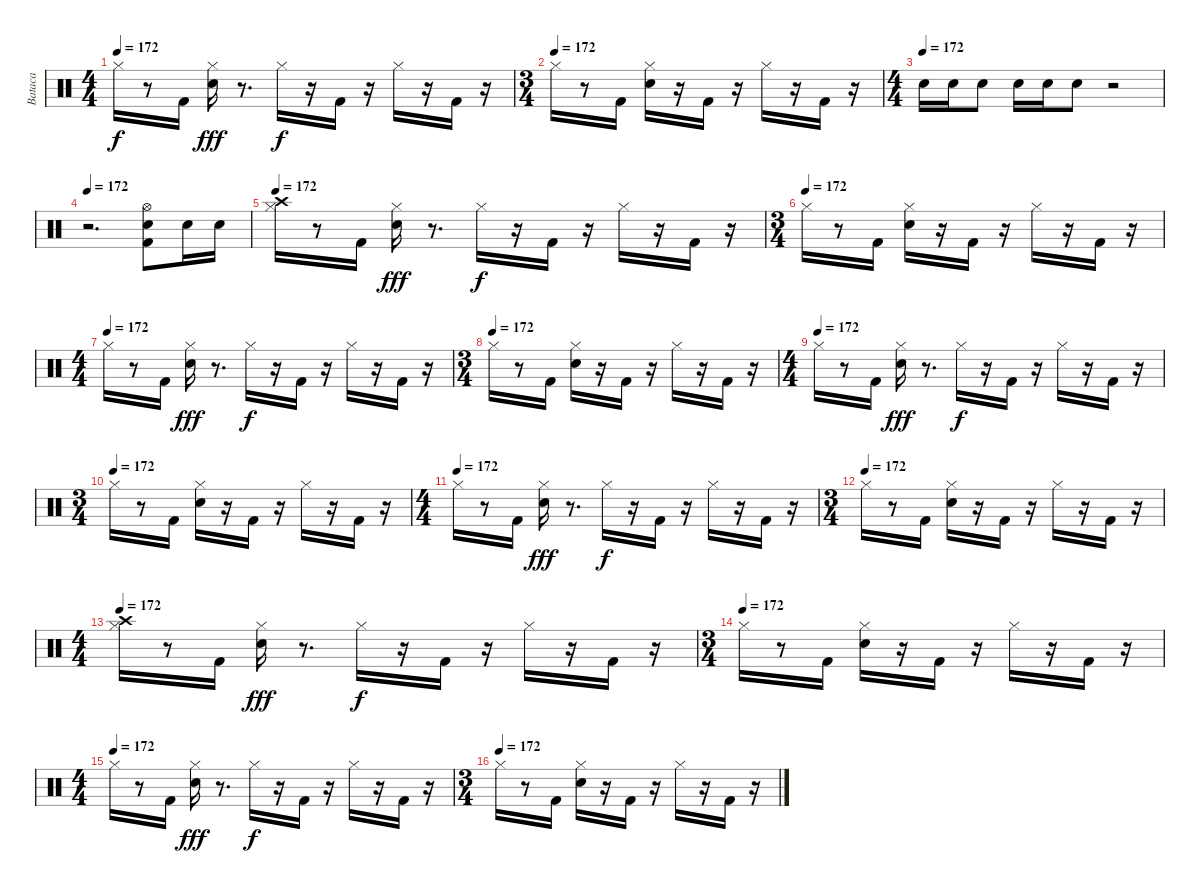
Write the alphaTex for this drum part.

\track ("Bataca" "Bataca") {instrument percussion}
\staff {score}
\articulation defaults
\ts (4 4)
\tempo 172
\clef neutral
\ks c "Hi-Hat (closed)".16{dy f}
r.8 "Kick (hit) 2".16 ("Hi-Hat (closed)" "Snare (hit) 2").16{dy fff} r.8{d} "Hi-Hat (closed)".16{dy f} r.16 "Kick (hit) 2".16 r.16 "Hi-Hat (closed)".16 r.16 "Kick (hit) 2".16 r.16 |
\ts (3 4)
\tempo (172)
"Hi-Hat (closed)".16 r.8 "Kick (hit) 2".16 ("Hi-Hat (closed)" "Snare (hit) 2").16 r.16 "Kick (hit) 2".16 r.16 "Hi-Hat (closed)".16 r.16 "Kick (hit) 2".16 r.16 |
\ts (4 4)
\tempo (172)
"Snare (hit) 2".16 "Snare (hit) 2".16 "Snare (hit) 2".8 "Snare (hit) 2".16 "Snare (hit) 2".16 "Snare (hit) 2".8 r.2 |
\tempo 172
r.2{d} ("Hi-Hat (open)" "Snare (hit) 2" "Kick (hit) 2").8 "Snare (hit) 2".16 "Snare (hit) 2".16 |
\tempo 172
("Crash high (hit)" "Hi-Hat (closed)").16 r.8 "Kick (hit) 2".16 ("Hi-Hat (closed)" "Snare (hit) 2").16{dy fff} r.8{d} "Hi-Hat (closed)".16{dy f} r.16 "Kick (hit) 2".16 r.16 "Hi-Hat (closed)".16 r.16 "Kick (hit) 2".16 r.16 |
\ts (3 4)
\tempo (172)
"Hi-Hat (closed)".16 r.8 "Kick (hit) 2".16 ("Hi-Hat (closed)" "Snare (hit) 2").16 r.16 "Kick (hit) 2".16 r.16 "Hi-Hat (closed)".16 r.16 "Kick (hit) 2".16 r.16 |
\ts (4 4)
\tempo (172)
"Hi-Hat (closed)".16 r.8 "Kick (hit) 2".16 ("Hi-Hat (closed)" "Snare (hit) 2").16{dy fff} r.8{d} "Hi-Hat (closed)".16{dy f} r.16 "Kick (hit) 2".16 r.16 "Hi-Hat (closed)".16 r.16 "Kick (hit) 2".16 r.16 |
\ts (3 4)
\tempo (172)
"Hi-Hat (closed)".16 r.8 "Kick (hit) 2".16 ("Hi-Hat (closed)" "Snare (hit) 2").16 r.16 "Kick (hit) 2".16 r.16 "Hi-Hat (closed)".16 r.16 "Kick (hit) 2".16 r.16 |
\ts (4 4)
\tempo (172)
"Hi-Hat (closed)".16 r.8 "Kick (hit) 2".16 ("Hi-Hat (closed)" "Snare (hit) 2").16{dy fff} r.8{d} "Hi-Hat (closed)".16{dy f} r.16 "Kick (hit) 2".16 r.16 "Hi-Hat (closed)".16 r.16 "Kick (hit) 2".16 r.16 |
\ts (3 4)
\tempo (172)
"Hi-Hat (closed)".16 r.8 "Kick (hit) 2".16 ("Hi-Hat (closed)" "Snare (hit) 2").16 r.16 "Kick (hit) 2".16 r.16 "Hi-Hat (closed)".16 r.16 "Kick (hit) 2".16 r.16 |
\ts (4 4)
\tempo (172)
"Hi-Hat (closed)".16 r.8 "Kick (hit) 2".16 ("Hi-Hat (closed)" "Snare (hit) 2").16{dy fff} r.8{d} "Hi-Hat (closed)".16{dy f} r.16 "Kick (hit) 2".16 r.16 "Hi-Hat (closed)".16 r.16 "Kick (hit) 2".16 r.16 |
\ts (3 4)
\tempo (172)
"Hi-Hat (closed)".16 r.8 "Kick (hit) 2".16 ("Hi-Hat (closed)" "Snare (hit) 2").16 r.16 "Kick (hit) 2".16 r.16 "Hi-Hat (closed)".16 r.16 "Kick (hit) 2".16 r.16 |
\ts (4 4)
\tempo 172
("Crash high (hit)" "Hi-Hat (closed)").16 r.8 "Kick (hit) 2".16 ("Hi-Hat (closed)" "Snare (hit) 2").16{dy fff} r.8{d} "Hi-Hat (closed)".16{dy f} r.16 "Kick (hit) 2".16 r.16 "Hi-Hat (closed)".16 r.16 "Kick (hit) 2".16 r.16 |
\ts (3 4)
\tempo (172)
"Hi-Hat (closed)".16 r.8 "Kick (hit) 2".16 ("Hi-Hat (closed)" "Snare (hit) 2").16 r.16 "Kick (hit) 2".16 r.16 "Hi-Hat (closed)".16 r.16 "Kick (hit) 2".16 r.16 |
\ts (4 4)
\tempo (172)
"Hi-Hat (closed)".16 r.8 "Kick (hit) 2".16 ("Hi-Hat (closed)" "Snare (hit) 2").16{dy fff} r.8{d} "Hi-Hat (closed)".16{dy f} r.16 "Kick (hit) 2".16 r.16 "Hi-Hat (closed)".16 r.16 "Kick (hit) 2".16 r.16 |
\ts (3 4)
\tempo (172)
"Hi-Hat (closed)".16 r.8 "Kick (hit) 2".16 ("Hi-Hat (closed)" "Snare (hit) 2").16 r.16 "Kick (hit) 2".16 r.16 "Hi-Hat (closed)".16 r.16 "Kick (hit) 2".16 r.16
